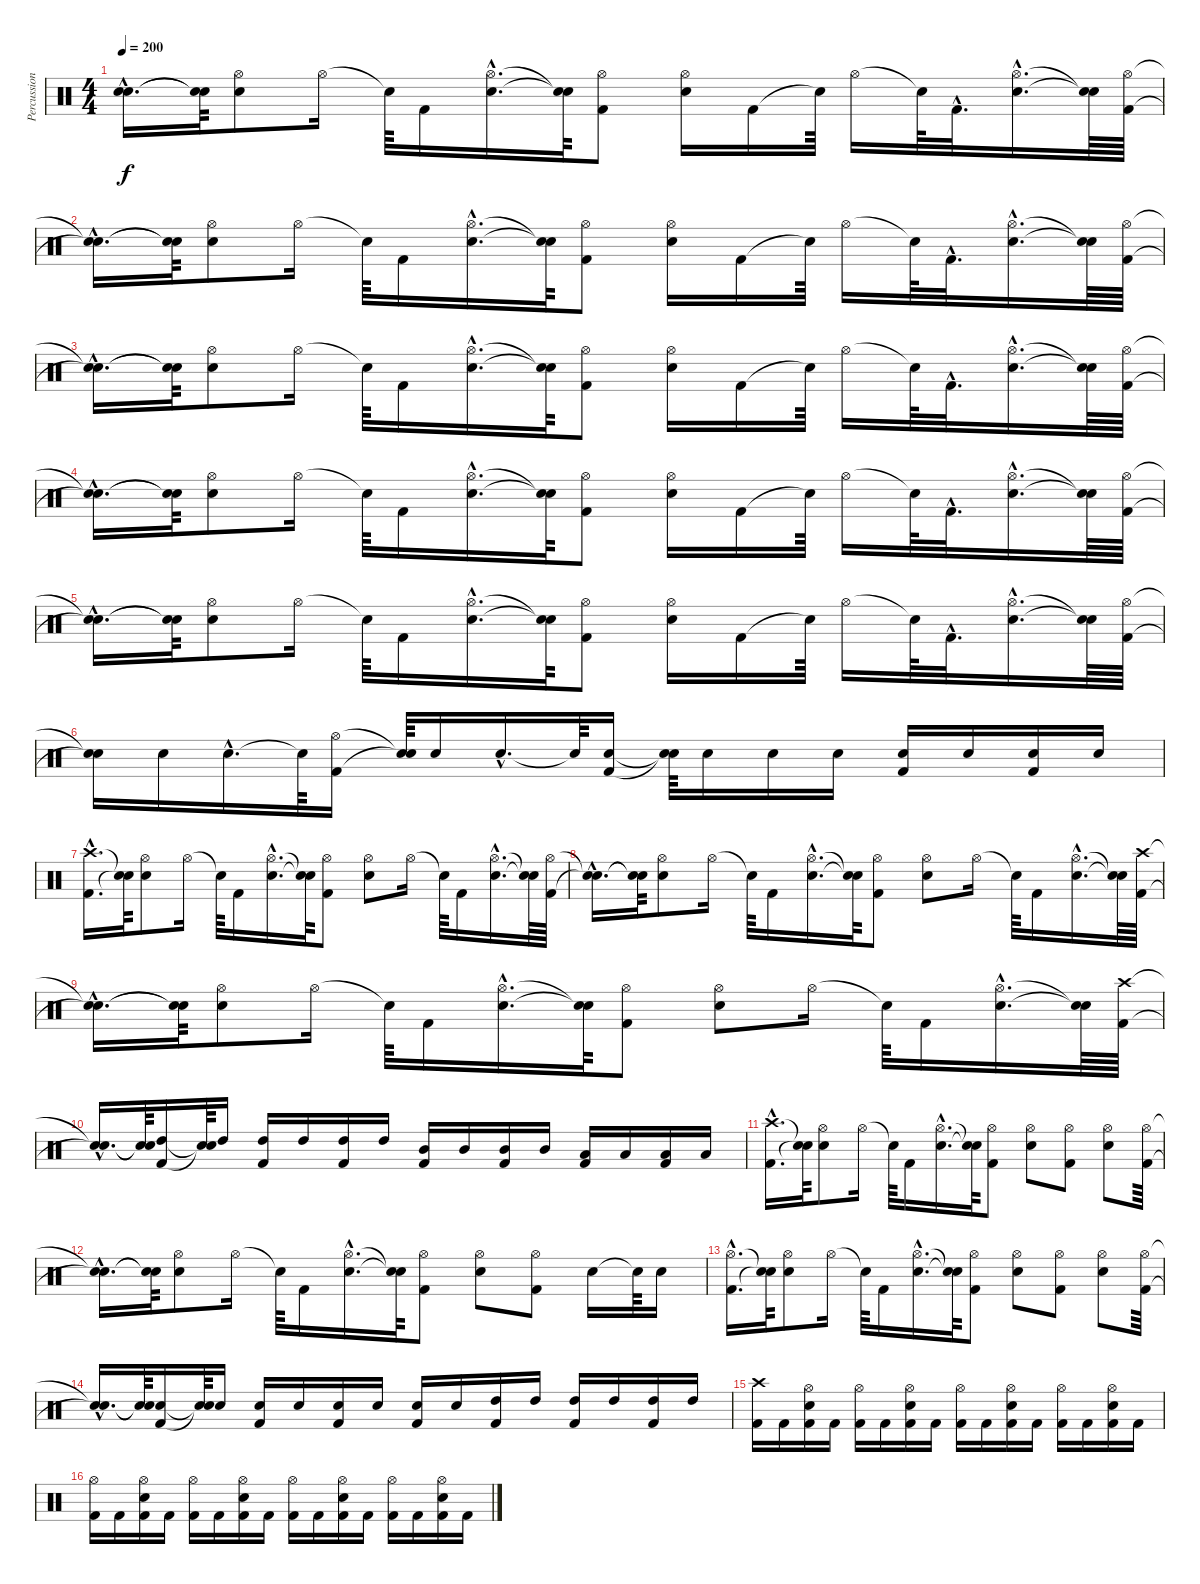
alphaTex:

\track ("Percussion" "Percussion") {instrument percussion}
\staff {score}
\articulation defaults
\ts (4 4)
\tempo 200
\clef neutral
\ks c
("Snare (hit)"{hac t} "Snare (hit)"{hac t}).16{d dy f} ("Snare (hit)"{t} "Snare (hit)"{t}).64 ("Electric Snare (hit)" "Hi-Hat (open)").8 "Hi-Hat (open)".16 "Snare (hit)"{t}.64 "Kick (hit) 2".16 ("Electric Snare (hit)"{hac} "Hi-Hat (open)"{hac}).16{d} ("Snare (hit)"{t} "Snare (hit)"{t}).64 ("Hi-Hat (open)" "Kick (hit) 2").8 ("Electric Snare (hit)" "Hi-Hat (open)").16 "Kick (hit) 2".16 "Snare (hit)"{t}.64 "Hi-Hat (open)".16 "Snare (hit)"{t}.64 "Kick (hit) 2"{hac}.32{d} ("Electric Snare (hit)"{hac} "Hi-Hat (open)"{hac}).16{d} ("Snare (hit)"{t} "Snare (hit)"{t}).64 ("Hi-Hat (open)" "Kick (hit) 2").64 |
("Snare (hit)"{hac t} "Snare (hit)"{hac t}).16{d} ("Snare (hit)"{t} "Snare (hit)"{t}).64 ("Electric Snare (hit)" "Hi-Hat (open)").8 "Hi-Hat (open)".16 "Snare (hit)"{t}.64 "Kick (hit) 2".16 ("Electric Snare (hit)"{hac} "Hi-Hat (open)"{hac}).16{d} ("Snare (hit)"{t} "Snare (hit)"{t}).64 ("Hi-Hat (open)" "Kick (hit) 2").8 ("Electric Snare (hit)" "Hi-Hat (open)").16 "Kick (hit) 2".16 "Snare (hit)"{t}.64 "Hi-Hat (open)".16 "Snare (hit)"{t}.64 "Kick (hit) 2"{hac}.32{d} ("Electric Snare (hit)"{hac} "Hi-Hat (open)"{hac}).16{d} ("Snare (hit)"{t} "Snare (hit)"{t}).64 ("Hi-Hat (open)" "Kick (hit) 2").64 |
("Snare (hit)"{hac t} "Snare (hit)"{hac t}).16{d} ("Snare (hit)"{t} "Snare (hit)"{t}).64 ("Electric Snare (hit)" "Hi-Hat (open)").8 "Hi-Hat (open)".16 "Snare (hit)"{t}.64 "Kick (hit) 2".16 ("Electric Snare (hit)"{hac} "Hi-Hat (open)"{hac}).16{d} ("Snare (hit)"{t} "Snare (hit)"{t}).64 ("Hi-Hat (open)" "Kick (hit) 2").8 ("Electric Snare (hit)" "Hi-Hat (open)").16 "Kick (hit) 2".16 "Snare (hit)"{t}.64 "Hi-Hat (open)".16 "Snare (hit)"{t}.64 "Kick (hit) 2"{hac}.32{d} ("Electric Snare (hit)"{hac} "Hi-Hat (open)"{hac}).16{d} ("Snare (hit)"{t} "Snare (hit)"{t}).64 ("Hi-Hat (open)" "Kick (hit) 2").64 |
("Snare (hit)"{hac t} "Snare (hit)"{hac t}).16{d} ("Snare (hit)"{t} "Snare (hit)"{t}).64 ("Electric Snare (hit)" "Hi-Hat (open)").8 "Hi-Hat (open)".16 "Snare (hit)"{t}.64 "Kick (hit) 2".16 ("Electric Snare (hit)"{hac} "Hi-Hat (open)"{hac}).16{d} ("Snare (hit)"{t} "Snare (hit)"{t}).64 ("Hi-Hat (open)" "Kick (hit) 2").8 ("Electric Snare (hit)" "Hi-Hat (open)").16 "Kick (hit) 2".16 "Snare (hit)"{t}.64 "Hi-Hat (open)".16 "Snare (hit)"{t}.64 "Kick (hit) 2"{hac}.32{d} ("Electric Snare (hit)"{hac} "Hi-Hat (open)"{hac}).16{d} ("Snare (hit)"{t} "Snare (hit)"{t}).64 ("Hi-Hat (open)" "Kick (hit) 2").64 |
("Snare (hit)"{hac t} "Snare (hit)"{hac t}).16{d} ("Snare (hit)"{t} "Snare (hit)"{t}).64 ("Electric Snare (hit)" "Hi-Hat (open)").8 "Hi-Hat (open)".16 "Snare (hit)"{t}.64 "Kick (hit) 2".16 ("Electric Snare (hit)"{hac} "Hi-Hat (open)"{hac}).16{d} ("Snare (hit)"{t} "Snare (hit)"{t}).64 ("Hi-Hat (open)" "Kick (hit) 2").8 ("Electric Snare (hit)" "Hi-Hat (open)").16 "Kick (hit) 2".16 "Snare (hit)"{t}.64 "Hi-Hat (open)".16 "Snare (hit)"{t}.64 "Kick (hit) 2"{hac}.32{d} ("Electric Snare (hit)"{hac} "Hi-Hat (open)"{hac}).16{d} ("Snare (hit)"{t} "Snare (hit)"{t}).64 ("Kick (hit) 2" "Hi-Hat (open)").64 |
("Snare (hit)"{t} "Snare (hit)"{t}).16 "Electric Snare (hit)".16 "Electric Snare (hit)"{hac}.16{d} "Snare (hit)"{t}.64 ("Kick (hit) 2" "Hi-Hat (open)").16 ("Snare (hit)"{t} "Snare (hit)"{t}).64 "Electric Snare (hit)".16 "Electric Snare (hit)"{hac}.16{d} "Snare (hit)"{t}.64 ("Kick (hit) 2" "Electric Snare (hit)").16 ("Snare (hit)"{t} "Snare (hit)"{t}).64 "Electric Snare (hit)".16 "Electric Snare (hit)".16 "Electric Snare (hit)".16 ("Kick (hit) 2" "Electric Snare (hit)").16 "Electric Snare (hit)".16 ("Kick (hit) 2" "Electric Snare (hit)").16 "Electric Snare (hit)".16 |
("Crash high (hit)"{hac} "Kick (hit) 2"{hac}).16{d} ("Snare (hit)"{t} "Snare (hit)"{t}).64 ("Electric Snare (hit)" "Hi-Hat (open)").8 "Hi-Hat (open)".16 "Snare (hit)"{t}.64 "Kick (hit) 2".16 ("Electric Snare (hit)"{hac} "Hi-Hat (open)"{hac}).16{d} ("Snare (hit)"{t} "Snare (hit)"{t}).64 ("Hi-Hat (open)" "Kick (hit) 2").8 ("Electric Snare (hit)" "Hi-Hat (open)").8 "Hi-Hat (open)".16 "Snare (hit)"{t}.64 "Kick (hit) 2".16 ("Electric Snare (hit)"{hac} "Hi-Hat (open)"{hac}).16{d} ("Snare (hit)"{t} "Snare (hit)"{t}).64 ("Hi-Hat (open)" "Kick (hit) 2").64 |
("Snare (hit)"{hac t} "Snare (hit)"{hac t}).16{d} ("Snare (hit)"{t} "Snare (hit)"{t}).64 ("Electric Snare (hit)" "Hi-Hat (open)").8 "Hi-Hat (open)".16 "Snare (hit)"{t}.64 "Kick (hit) 2".16 ("Electric Snare (hit)"{hac} "Hi-Hat (open)"{hac}).16{d} ("Snare (hit)"{t} "Snare (hit)"{t}).64 ("Hi-Hat (open)" "Kick (hit) 2").8 ("Electric Snare (hit)" "Hi-Hat (open)").8 "Hi-Hat (open)".16 "Snare (hit)"{t}.64 "Kick (hit) 2".16 ("Electric Snare (hit)"{hac} "Hi-Hat (open)"{hac}).16{d} ("Snare (hit)"{t} "Snare (hit)"{t}).64 ("Crash high (hit)" "Kick (hit) 2").64 |
("Snare (hit)"{hac t} "Snare (hit)"{hac t}).16{d} ("Snare (hit)"{t} "Snare (hit)"{t}).64 ("Electric Snare (hit)" "Hi-Hat (open)").8 "Hi-Hat (open)".16 "Snare (hit)"{t}.64 "Kick (hit) 2".16 ("Electric Snare (hit)"{hac} "Hi-Hat (open)"{hac}).16{d} ("Snare (hit)"{t} "Snare (hit)"{t}).64 ("Hi-Hat (open)" "Kick (hit) 2").8 ("Electric Snare (hit)" "Hi-Hat (open)").8 "Hi-Hat (open)".16 "Snare (hit)"{t}.64 "Kick (hit) 2".16 ("Electric Snare (hit)"{hac} "Hi-Hat (open)"{hac}).16{d} ("Snare (hit)"{t} "Snare (hit)"{t}).64 ("Kick (hit) 2" "Crash high (hit)").64 |
("Snare (hit)"{hac t} "Snare (hit)"{hac t}).16{d} ("Snare (hit)"{t} "Snare (hit)"{t}).64 ("Kick (hit) 2" "High Tom (hit)").16 ("Snare (hit)"{t} "Snare (hit)"{t}).64 "High Tom (hit)".16 ("Kick (hit) 2" "High Tom (hit)").16 "High Tom (hit)".16 ("Kick (hit) 2" "High Tom (hit)").16 "High Tom (hit)".16 ("Kick (hit) 2" "Mid Tom (hit)").16 "Mid Tom (hit)".16 ("Kick (hit) 2" "Mid Tom (hit)").16 "Mid Tom (hit)".16 ("Kick (hit) 2" "Low Tom (hit)").16 "Low Tom (hit)".16 ("Kick (hit) 2" "Low Tom (hit)").16 "Low Tom (hit)".16 |
("Crash high (hit)"{hac} "Kick (hit) 2"{hac}).16{d} ("Snare (hit)"{t} "Snare (hit)"{t}).64 ("Electric Snare (hit)" "Hi-Hat (open)").8 "Hi-Hat (open)".16 "Snare (hit)"{t}.64 "Kick (hit) 2".16 ("Electric Snare (hit)"{hac} "Hi-Hat (open)"{hac}).16{d} ("Snare (hit)"{t} "Snare (hit)"{t}).64 ("Hi-Hat (open)" "Kick (hit) 2").8 ("Electric Snare (hit)" "Hi-Hat (open)").8 ("Hi-Hat (open)" "Kick (hit) 2").8 ("Electric Snare (hit)" "Hi-Hat (open)").8 ("Hi-Hat (open)" "Kick (hit) 2").64 |
("Snare (hit)"{hac t} "Snare (hit)"{hac t}).16{d} ("Snare (hit)"{t} "Snare (hit)"{t}).64 ("Electric Snare (hit)" "Hi-Hat (open)").8 "Hi-Hat (open)".16 "Snare (hit)"{t}.64 "Kick (hit) 2".16 ("Electric Snare (hit)"{hac} "Hi-Hat (open)"{hac}).16{d} ("Snare (hit)"{t} "Snare (hit)"{t}).64 ("Hi-Hat (open)" "Kick (hit) 2").8 ("Electric Snare (hit)" "Hi-Hat (open)").8 ("Hi-Hat (open)" "Kick (hit) 2").8 "Electric Snare (hit)".16 "Snare (hit)"{t}.64 "Electric Snare (hit)".16 |
("Hi-Hat (open)"{hac} "Kick (hit) 2"{hac}).16{d} ("Snare (hit)"{t} "Snare (hit)"{t}).64 ("Electric Snare (hit)" "Hi-Hat (open)").8 "Hi-Hat (open)".16 "Snare (hit)"{t}.64 "Kick (hit) 2".16 ("Electric Snare (hit)"{hac} "Hi-Hat (open)"{hac}).16{d} ("Snare (hit)"{t} "Snare (hit)"{t}).64 ("Hi-Hat (open)" "Kick (hit) 2").8 ("Electric Snare (hit)" "Hi-Hat (open)").8 ("Hi-Hat (open)" "Kick (hit) 2").8 ("Electric Snare (hit)" "Hi-Hat (open)").8 ("Kick (hit) 2" "Hi-Hat (open)").64 |
("Snare (hit)"{hac t} "Snare (hit)"{hac t}).16{d} ("Snare (hit)"{t} "Snare (hit)"{t}).64 ("Kick (hit) 2" "Electric Snare (hit)").16 ("Snare (hit)"{t} "Snare (hit)"{t}).64 "Electric Snare (hit)".16 ("Kick (hit) 2" "Electric Snare (hit)").16 "Electric Snare (hit)".16 ("Kick (hit) 2" "Electric Snare (hit)").16 "Electric Snare (hit)".16 ("Kick (hit) 2" "Electric Snare (hit)").16 "Electric Snare (hit)".16 ("Kick (hit) 2" "High Tom (hit)").16 "High Tom (hit)".16 ("Kick (hit) 2" "High Tom (hit)").16 "High Tom (hit)".16 ("Kick (hit) 2" "High Tom (hit)").16 "High Tom (hit)".16 |
("Kick (hit) 2" "Crash high (hit)").16 "Kick (hit) 2".16 ("Kick (hit) 2" "Electric Snare (hit)" "Hi-Hat (open)").16 "Kick (hit) 2".16 ("Kick (hit) 2" "Hi-Hat (open)").16 "Kick (hit) 2".16 ("Kick (hit) 2" "Electric Snare (hit)" "Hi-Hat (open)").16 "Kick (hit) 2".16 ("Kick (hit) 2" "Hi-Hat (open)").16 "Kick (hit) 2".16 ("Kick (hit) 2" "Electric Snare (hit)" "Hi-Hat (open)").16 "Kick (hit) 2".16 ("Kick (hit) 2" "Hi-Hat (open)").16 "Kick (hit) 2".16 ("Kick (hit) 2" "Electric Snare (hit)" "Hi-Hat (open)").16 "Kick (hit) 2".16 |
("Kick (hit) 2" "Hi-Hat (open)").16 "Kick (hit) 2".16 ("Kick (hit) 2" "Electric Snare (hit)" "Hi-Hat (open)").16 "Kick (hit) 2".16 ("Kick (hit) 2" "Hi-Hat (open)").16 "Kick (hit) 2".16 ("Kick (hit) 2" "Electric Snare (hit)" "Hi-Hat (open)").16 "Kick (hit) 2".16 ("Kick (hit) 2" "Hi-Hat (open)").16 "Kick (hit) 2".16 ("Kick (hit) 2" "Electric Snare (hit)" "Hi-Hat (open)").16 "Kick (hit) 2".16 ("Kick (hit) 2" "Hi-Hat (open)").16 "Kick (hit) 2".16 ("Kick (hit) 2" "Electric Snare (hit)" "Hi-Hat (open)").16 "Kick (hit) 2".16
